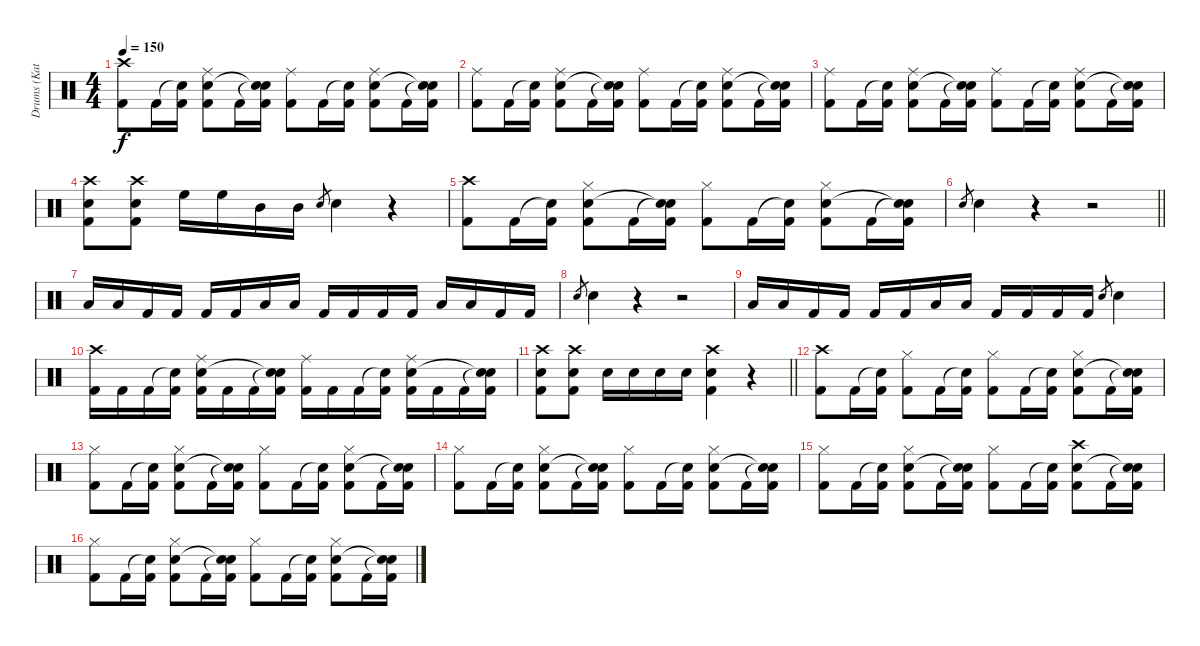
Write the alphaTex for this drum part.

\track ("Drums (Katsuji)" "Drums (Kat") {instrument percussion}
\staff {score}
\articulation defaults
\ts (4 4)
\tempo 150
\clef neutral
\ks c
("Crash high (hit)" "Kick (hit) 2").8{dy f} "Kick (hit) 2".16 ("Snare (hit)"{t} "Kick (hit) 2").16 ("Ride (middle)" "Snare (hit) 2" "Kick (hit) 2").8 "Kick (hit) 2".16 ("Snare (hit)"{t} "Snare (hit)"{t} "Kick (hit) 2").16 ("Ride (middle)" "Kick (hit) 2").8 "Kick (hit) 2".16 ("Snare (hit)"{t} "Kick (hit) 2").16 ("Ride (middle)" "Snare (hit) 2" "Kick (hit) 2").8 "Kick (hit) 2".16 ("Snare (hit)"{t} "Snare (hit)"{t} "Kick (hit) 2").16 |
("Ride (middle)" "Kick (hit) 2").8 "Kick (hit) 2".16 ("Snare (hit)"{t} "Kick (hit) 2").16 ("Ride (middle)" "Snare (hit) 2" "Kick (hit) 2").8 "Kick (hit) 2".16 ("Snare (hit)"{t} "Snare (hit)"{t} "Kick (hit) 2").16 ("Ride (middle)" "Kick (hit) 2").8 "Kick (hit) 2".16 ("Snare (hit)"{t} "Kick (hit) 2").16 ("Ride (middle)" "Snare (hit) 2" "Kick (hit) 2").8 "Kick (hit) 2".16 ("Snare (hit)"{t} "Snare (hit)"{t} "Kick (hit) 2").16 |
("Ride (middle)" "Kick (hit) 2").8 "Kick (hit) 2".16 ("Snare (hit)"{t} "Kick (hit) 2").16 ("Ride (middle)" "Snare (hit) 2" "Kick (hit) 2").8 "Kick (hit) 2".16 ("Snare (hit)"{t} "Snare (hit)"{t} "Kick (hit) 2").16 ("Ride (middle)" "Kick (hit) 2").8 "Kick (hit) 2".16 ("Snare (hit)"{t} "Kick (hit) 2").16 ("Ride (middle)" "Snare (hit) 2" "Kick (hit) 2").8 "Kick (hit) 2".16 ("Snare (hit)"{t} "Snare (hit)"{t} "Kick (hit) 2").16 |
("Crash high (hit)" "Snare (hit) 2" "Kick (hit) 2").8 ("Crash high (hit)" "Snare (hit) 2" "Kick (hit) 2").8 "High Floor Tom (hit)".16 "High Floor Tom (hit)".16 "Mid Tom (hit)".16 "Mid Tom (hit)".16 "Snare (hit) 2".8{gr} "Snare (hit) 2".4 r.4 |
("Crash high (hit)" "Kick (hit) 2").8 "Kick (hit) 2".16 ("Snare (hit)"{t} "Kick (hit) 2").16 ("Hi-Hat (closed)" "Snare (hit) 2" "Kick (hit) 2").8 "Kick (hit) 2".16 ("Snare (hit)"{t} "Snare (hit)"{t} "Kick (hit) 2").16 ("Hi-Hat (closed)" "Kick (hit) 2").8 "Kick (hit) 2".16 ("Snare (hit)"{t} "Kick (hit) 2").16 ("Hi-Hat (closed)" "Snare (hit) 2" "Kick (hit) 2").8 "Kick (hit) 2".16 ("Snare (hit)"{t} "Snare (hit)"{t} "Kick (hit) 2").16 |
\barLineRight lightlight "Snare (hit) 2".8{gr} "Snare (hit) 2".4
r.4 r.2 |
"Low Tom (hit)".16 "Low Tom (hit)".16 "Kick (hit) 2".16 "Kick (hit) 2".16 "Kick (hit) 2".16 "Kick (hit) 2".16 "Low Tom (hit)".16 "Low Tom (hit)".16 "Kick (hit) 2".16 "Kick (hit) 2".16 "Kick (hit) 2".16 "Kick (hit) 2".16 "Low Tom (hit)".16 "Low Tom (hit)".16 "Kick (hit) 2".16 "Kick (hit) 2".16 |
"Snare (hit) 2".8{gr} "Snare (hit) 2".4 r.4 r.2 |
"Low Tom (hit)".16 "Low Tom (hit)".16 "Kick (hit) 2".16 "Kick (hit) 2".16 "Kick (hit) 2".16 "Kick (hit) 2".16 "Low Tom (hit)".16 "Low Tom (hit)".16 "Kick (hit) 2".16 "Kick (hit) 2".16 "Kick (hit) 2".16 "Kick (hit) 2".16 "Snare (hit) 2".8{gr} "Snare (hit) 2".4 |
("Crash high (hit)" "Kick (hit) 2").16 "Kick (hit) 2".16 "Kick (hit) 2".16 ("Snare (hit)"{t} "Kick (hit) 2").16 ("Ride (middle)" "Snare (hit) 2" "Kick (hit) 2").16 "Kick (hit) 2".16 "Kick (hit) 2".16 ("Snare (hit)"{t} "Snare (hit)"{t} "Kick (hit) 2").16 ("Ride (middle)" "Kick (hit) 2").16 "Kick (hit) 2".16 "Kick (hit) 2".16 ("Snare (hit)"{t} "Kick (hit) 2").16 ("Ride (middle)" "Snare (hit) 2" "Kick (hit) 2").16 "Kick (hit) 2".16 "Kick (hit) 2".16 ("Snare (hit)"{t} "Snare (hit)"{t} "Kick (hit) 2").16 |
\barLineRight lightlight
("Crash high (hit)" "Snare (hit) 2" "Kick (hit) 2").8 ("Crash high (hit)" "Snare (hit) 2" "Kick (hit) 2").8 "Snare (hit) 2".16 "Snare (hit) 2".16 "Snare (hit) 2".16 "Snare (hit) 2".16 ("Crash high (hit)" "Snare (hit) 2" "Kick (hit) 2").4 r.4 |
("Crash high (hit)" "Kick (hit) 2").8 "Kick (hit) 2".16 ("Snare (hit)"{t} "Kick (hit) 2").16 ("Hi-Hat (closed)" "Kick (hit) 2").8 "Kick (hit) 2".16 ("Snare (hit)"{t} "Kick (hit) 2").16 ("Hi-Hat (closed)" "Kick (hit) 2").8 "Kick (hit) 2".16 ("Snare (hit)"{t} "Kick (hit) 2").16 ("Hi-Hat (closed)" "Snare (hit) 2" "Kick (hit) 2").8 "Kick (hit) 2".16 ("Snare (hit)"{t} "Snare (hit)"{t} "Kick (hit) 2").16 |
("Hi-Hat (closed)" "Kick (hit) 2").8 "Kick (hit) 2".16 ("Snare (hit)"{t} "Kick (hit) 2").16 ("Hi-Hat (closed)" "Snare (hit) 2" "Kick (hit) 2").8 "Kick (hit) 2".16 ("Snare (hit)"{t} "Snare (hit)"{t} "Kick (hit) 2").16 ("Hi-Hat (closed)" "Kick (hit) 2").8 "Kick (hit) 2".16 ("Snare (hit)"{t} "Kick (hit) 2").16 ("Hi-Hat (closed)" "Snare (hit) 2" "Kick (hit) 2").8 "Kick (hit) 2".16 ("Snare (hit)"{t} "Snare (hit)"{t} "Kick (hit) 2").16 |
("Hi-Hat (closed)" "Kick (hit) 2").8 "Kick (hit) 2".16 ("Snare (hit)"{t} "Kick (hit) 2").16 ("Hi-Hat (closed)" "Snare (hit) 2" "Kick (hit) 2").8 "Kick (hit) 2".16 ("Snare (hit)"{t} "Snare (hit)"{t} "Kick (hit) 2").16 ("Hi-Hat (closed)" "Kick (hit) 2").8 "Kick (hit) 2".16 ("Snare (hit)"{t} "Kick (hit) 2").16 ("Hi-Hat (closed)" "Snare (hit) 2" "Kick (hit) 2").8 "Kick (hit) 2".16 ("Snare (hit)"{t} "Snare (hit)"{t} "Kick (hit) 2").16 |
("Hi-Hat (closed)" "Kick (hit) 2").8 "Kick (hit) 2".16 ("Snare (hit)"{t} "Kick (hit) 2").16 ("Hi-Hat (closed)" "Snare (hit) 2" "Kick (hit) 2").8 "Kick (hit) 2".16 ("Snare (hit)"{t} "Snare (hit)"{t} "Kick (hit) 2").16 ("Hi-Hat (closed)" "Kick (hit) 2").8 "Kick (hit) 2".16 ("Snare (hit)"{t} "Kick (hit) 2").16 ("Crash high (hit)" "Snare (hit) 2" "Kick (hit) 2").8 "Kick (hit) 2".16 ("Snare (hit)"{t} "Snare (hit)"{t} "Kick (hit) 2").16 |
("Hi-Hat (closed)" "Kick (hit) 2").8 "Kick (hit) 2".16 ("Snare (hit)"{t} "Kick (hit) 2").16 ("Hi-Hat (closed)" "Snare (hit) 2" "Kick (hit) 2").8 "Kick (hit) 2".16 ("Snare (hit)"{t} "Snare (hit)"{t} "Kick (hit) 2").16 ("Hi-Hat (closed)" "Kick (hit) 2").8 "Kick (hit) 2".16 ("Snare (hit)"{t} "Kick (hit) 2").16 ("Hi-Hat (closed)" "Snare (hit) 2" "Kick (hit) 2").8 "Kick (hit) 2".16 ("Snare (hit)"{t} "Snare (hit)"{t} "Kick (hit) 2").16
